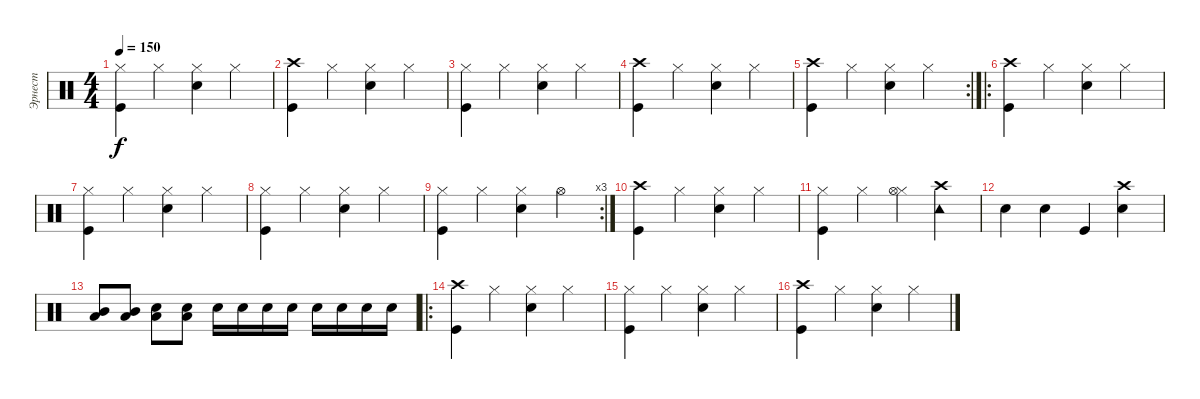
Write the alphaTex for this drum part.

\track ("Эрнест" "Эрнест") {instrument percussion}
\staff {score}
\articulation defaults
\ts (4 4)
\tempo 150
\clef neutral
\ks c
("Hi-Hat (closed)" "Kick (hit)").4{dy f} "Hi-Hat (closed)".4 ("Hi-Hat (closed)" "Snare (hit) 2").4 "Hi-Hat (closed)".4 |
("Crash high (hit)" "Kick (hit)").4 "Hi-Hat (closed)".4 ("Hi-Hat (closed)" "Snare (hit) 2").4 "Hi-Hat (closed)".4 |
("Hi-Hat (closed)" "Kick (hit)").4 "Hi-Hat (closed)".4 ("Hi-Hat (closed)" "Snare (hit) 2").4 "Hi-Hat (closed)".4 |
("Crash high (hit)" "Kick (hit)").4 "Hi-Hat (closed)".4 ("Hi-Hat (closed)" "Snare (hit) 2").4 "Hi-Hat (closed)".4 |
\rc 2
("Crash high (hit)" "Kick (hit)").4 "Hi-Hat (closed)".4 ("Hi-Hat (closed)" "Snare (hit) 2").4 "Hi-Hat (closed)".4 |
\ro
("Crash high (hit)" "Kick (hit)").4 "Hi-Hat (closed)".4 ("Hi-Hat (closed)" "Snare (hit) 2").4 "Hi-Hat (closed)".4 |
("Hi-Hat (closed)" "Kick (hit)").4 "Hi-Hat (closed)".4 ("Hi-Hat (closed)" "Snare (hit) 2").4 "Hi-Hat (closed)".4 |
("Hi-Hat (closed)" "Kick (hit)").4 "Hi-Hat (closed)".4 ("Hi-Hat (closed)" "Snare (hit) 2").4 "Hi-Hat (closed)".4 |
\rc 3
("Hi-Hat (closed)" "Kick (hit)").4 "Hi-Hat (closed)".4 ("Hi-Hat (closed)" "Snare (hit) 2").4 "Hi-Hat (open)".4 |
("Crash high (hit)" "Kick (hit)").4 "Hi-Hat (closed)".4 ("Hi-Hat (closed)" "Snare (hit) 2").4 "Hi-Hat (closed)".4 |
("Hi-Hat (closed)" "Kick (hit)").4 "Hi-Hat (closed)".4 ("Hi-Hat (closed)" "Hi-Hat (open)").4 ("Crash high (hit)" "Tambourine (hit)").4 |
"Snare (hit) 2".4 "Snare (hit) 2".4 "Kick (hit)".4 ("Crash high (hit)" "Snare (hit) 2").4 |
("Mid Tom (hit)" "Low Tom (hit)").8 ("Mid Tom (hit)" "Low Tom (hit)").8 ("Snare (hit) 2" "Low Floor Tom (hit)").8 ("Snare (hit) 2" "Low Floor Tom (hit)").8 "Snare (hit) 2".16 "Snare (hit) 2".16 "Snare (hit) 2".16 "Snare (hit) 2".16 "Snare (hit) 2".16 "Snare (hit) 2".16 "Snare (hit) 2".16 "Snare (hit) 2".16 |
\ro
("Crash high (hit)" "Kick (hit)").4 "Hi-Hat (closed)".4 ("Hi-Hat (closed)" "Snare (hit) 2").4 "Hi-Hat (closed)".4 |
("Hi-Hat (closed)" "Kick (hit)").4 "Hi-Hat (closed)".4 ("Hi-Hat (closed)" "Snare (hit) 2").4 "Hi-Hat (closed)".4 |
("Crash high (hit)" "Kick (hit)").4 "Hi-Hat (closed)".4 ("Hi-Hat (closed)" "Snare (hit) 2").4 "Hi-Hat (closed)".4
